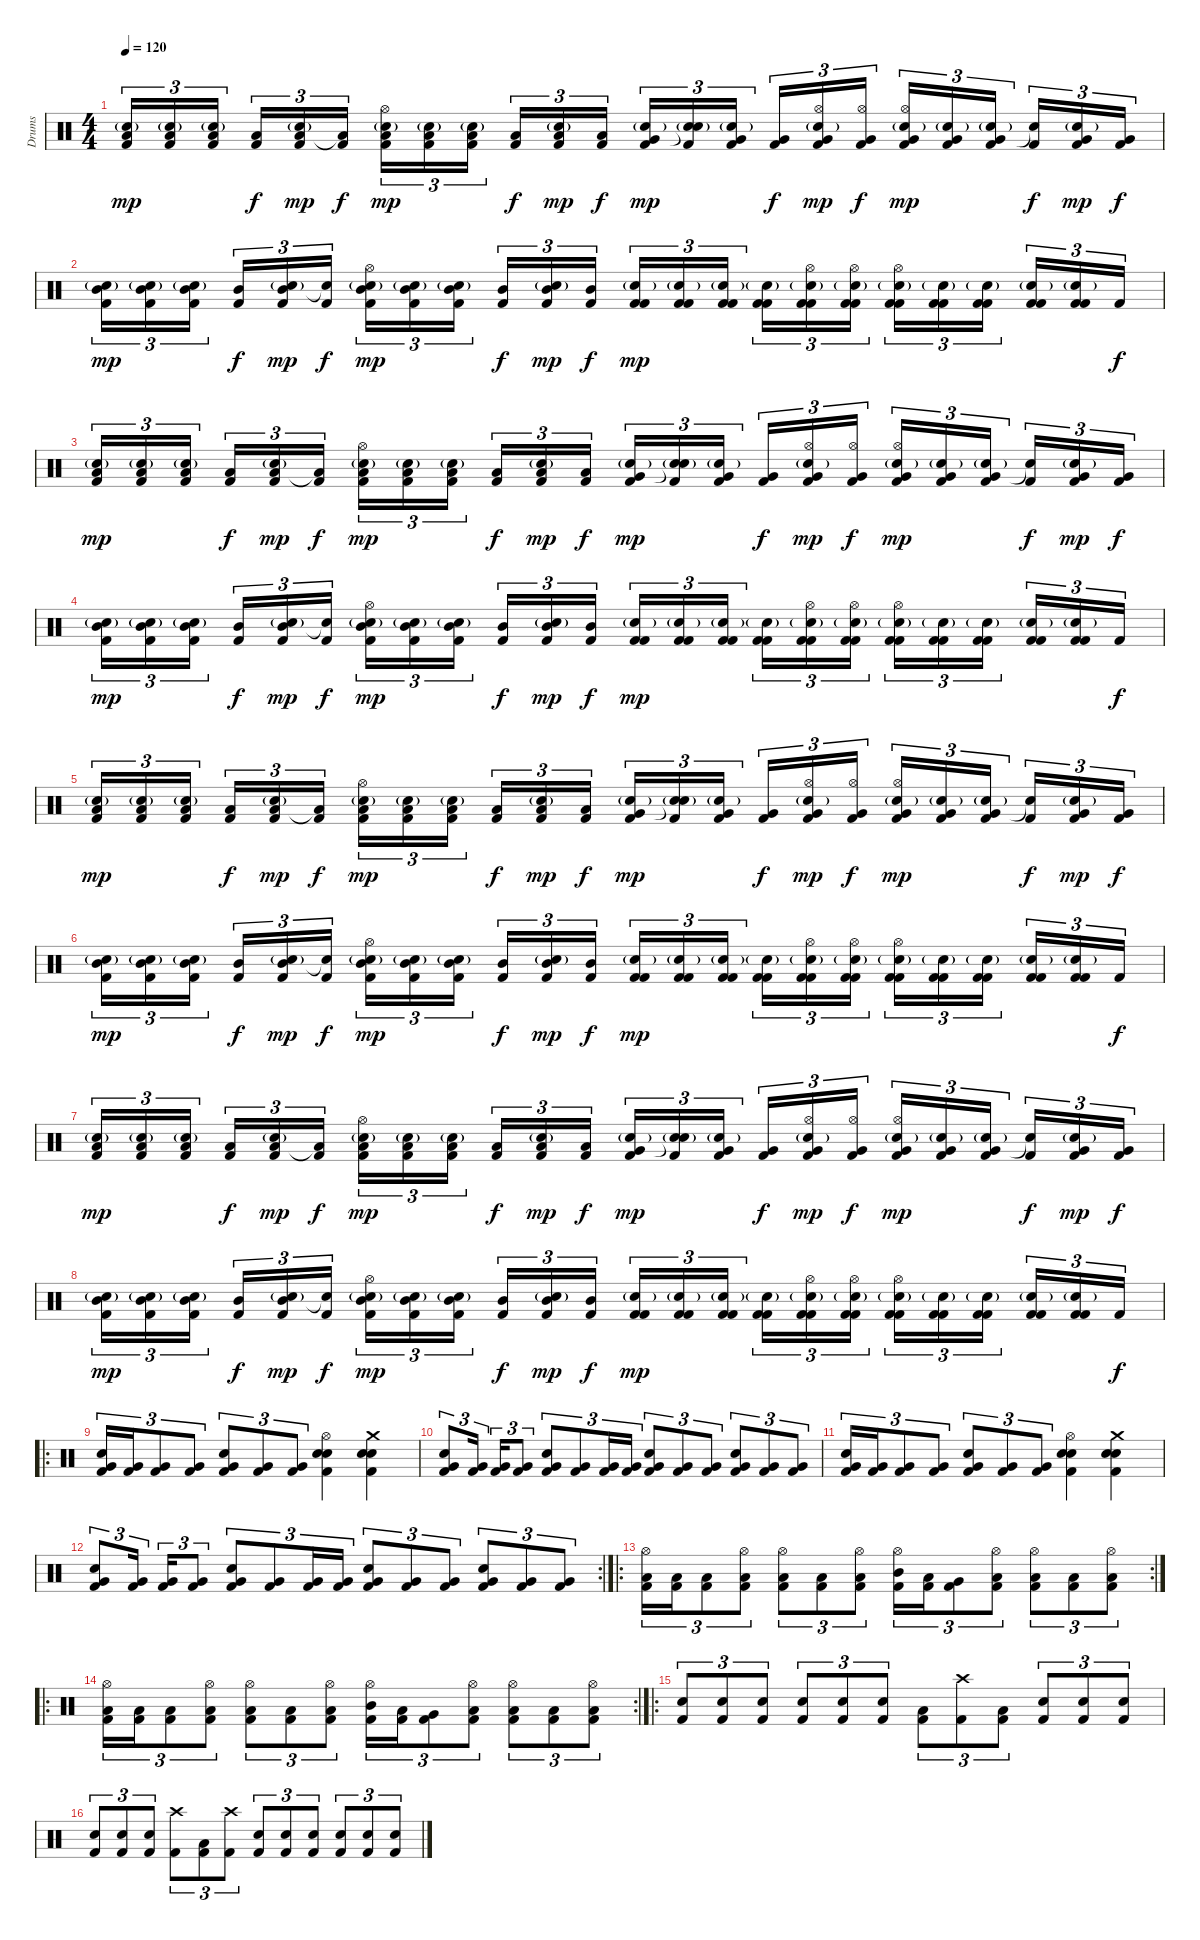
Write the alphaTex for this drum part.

\track ("Drums" "Drums") {instrument percussion}
\staff {score}
\articulation defaults
\ts (4 4)
\tempo 120
\clef neutral
\ks c
("Low Tom (hit)" "Snare (hit) 2"{g} "Kick (hit) 2").16{tu (3 2) dy mp} ("Low Tom (hit)" "Snare (hit) 2"{g} "Kick (hit) 2").16{tu (3 2)} ("Low Tom (hit)" "Snare (hit) 2"{g} "Kick (hit) 2").16{tu (3 2)} ("Low Tom (hit)" "Kick (hit) 2").16{tu (3 2) dy f} ("Low Tom (hit)" "Snare (hit) 2"{g} "Kick (hit) 2").16{tu (3 2) dy mp} ("Low Tom (hit)"{t} "Kick (hit) 2").16{tu (3 2) dy f} ("Low Tom (hit)" "Hi-Hat (open)" "Snare (hit) 2"{g} "Kick (hit) 2").16{tu (3 2) dy mp} ("Low Tom (hit)" "Snare (hit) 2"{g} "Kick (hit) 2").16{tu (3 2)} ("Low Tom (hit)" "Snare (hit) 2"{g} "Kick (hit) 2").16{tu (3 2)} ("Low Tom (hit)" "Kick (hit) 2").16{tu (3 2) dy f} ("Low Tom (hit)" "Snare (hit) 2"{g} "Kick (hit) 2").16{tu (3 2) dy mp} ("Low Tom (hit)" "Kick (hit) 2").16{tu (3 2) dy f} ("Very Low Tom (hit)" "Snare (hit) 2"{g} "Kick (hit) 2").16{tu (3 2) dy mp} ("Snare (hit) 2"{t} "Snare (hit) 2"{g} "Kick (hit) 2").16{tu (3 2)} ("Very Low Tom (hit)" "Snare (hit) 2"{g} "Kick (hit) 2").16{tu (3 2)} ("Very Low Tom (hit)" "Kick (hit) 2").16{tu (3 2) dy f} ("Very Low Tom (hit)" "Hi-Hat (open)" "Snare (hit) 2"{g} "Kick (hit) 2").16{tu (3 2) dy mp} ("Very Low Tom (hit)" "Hi-Hat (open)" "Kick (hit) 2").16{tu (3 2) dy f} ("Very Low Tom (hit)" "Hi-Hat (open)" "Snare (hit) 2"{g} "Kick (hit) 2").16{tu (3 2) dy mp} ("Very Low Tom (hit)" "Snare (hit) 2"{g} "Kick (hit) 2").16{tu (3 2)} ("Very Low Tom (hit)" "Snare (hit) 2"{g} "Kick (hit) 2").16{tu (3 2)} ("Snare (hit)"{t} "Kick (hit) 2").16{tu (3 2) dy f} ("Very Low Tom (hit)" "Snare (hit) 2"{g} "Kick (hit) 2").16{tu (3 2) dy mp} ("Very Low Tom (hit)" "Kick (hit) 2").16{tu (3 2) dy f} |
("Mid Tom (hit)" "Snare (hit) 2"{g} "Kick (hit) 2").16{tu (3 2) dy mp} ("Mid Tom (hit)" "Snare (hit) 2"{g} "Kick (hit) 2").16{tu (3 2)} ("Mid Tom (hit)" "Snare (hit) 2"{g} "Kick (hit) 2").16{tu (3 2)} ("Mid Tom (hit)" "Kick (hit) 2").16{tu (3 2) dy f} ("Mid Tom (hit)" "Snare (hit) 2"{g} "Kick (hit) 2").16{tu (3 2) dy mp} ("Snare (hit) 2"{t} "Kick (hit) 2").16{tu (3 2) dy f} ("Mid Tom (hit)" "Hi-Hat (open)" "Snare (hit) 2"{g} "Kick (hit) 2").16{tu (3 2) dy mp} ("Mid Tom (hit)" "Snare (hit) 2"{g} "Kick (hit) 2").16{tu (3 2)} ("Mid Tom (hit)" "Snare (hit) 2"{g} "Kick (hit) 2").16{tu (3 2)} ("Mid Tom (hit)" "Kick (hit) 2").16{tu (3 2) dy f} ("Mid Tom (hit)" "Snare (hit) 2"{g} "Kick (hit) 2").16{tu (3 2) dy mp} ("Mid Tom (hit)" "Kick (hit) 2").16{tu (3 2) dy f} ("Kick (hit) 2" "Snare (hit) 2"{g} "Kick (hit) 2").16{tu (3 2) dy mp} ("Kick (hit) 2" "Snare (hit) 2"{g} "Kick (hit) 2").16{tu (3 2)} ("Kick (hit) 2" "Snare (hit) 2"{g} "Kick (hit) 2").16{tu (3 2)} ("Kick (hit) 2" "Snare (hit) 2"{g} "Kick (hit) 2").16{tu (3 2)} ("Kick (hit) 2" "Snare (hit) 2"{g} "Hi-Hat (open)" "Kick (hit) 2").16{tu (3 2)} ("Kick (hit) 2" "Snare (hit) 2"{g} "Hi-Hat (open)" "Kick (hit) 2").16{tu (3 2)} ("Kick (hit) 2" "Snare (hit) 2"{g} "Hi-Hat (open)" "Kick (hit) 2").16{tu (3 2)} ("Kick (hit) 2" "Snare (hit) 2"{g} "Kick (hit) 2").16{tu (3 2)} ("Kick (hit) 2" "Snare (hit) 2"{g} "Kick (hit) 2").16{tu (3 2)} ("Kick (hit) 2" "Snare (hit) 2"{g} "Kick (hit) 2").16{tu (3 2)} ("Kick (hit) 2" "Snare (hit) 2"{g} "Kick (hit) 2").16{tu (3 2)} "Kick (hit) 2".16{tu (3 2) dy f} |
("Low Tom (hit)" "Snare (hit) 2"{g} "Kick (hit) 2").16{tu (3 2) dy mp} ("Low Tom (hit)" "Snare (hit) 2"{g} "Kick (hit) 2").16{tu (3 2)} ("Low Tom (hit)" "Snare (hit) 2"{g} "Kick (hit) 2").16{tu (3 2)} ("Low Tom (hit)" "Kick (hit) 2").16{tu (3 2) dy f} ("Low Tom (hit)" "Snare (hit) 2"{g} "Kick (hit) 2").16{tu (3 2) dy mp} ("Low Tom (hit)"{t} "Kick (hit) 2").16{tu (3 2) dy f} ("Low Tom (hit)" "Hi-Hat (open)" "Snare (hit) 2"{g} "Kick (hit) 2").16{tu (3 2) dy mp} ("Low Tom (hit)" "Snare (hit) 2"{g} "Kick (hit) 2").16{tu (3 2)} ("Low Tom (hit)" "Snare (hit) 2"{g} "Kick (hit) 2").16{tu (3 2)} ("Low Tom (hit)" "Kick (hit) 2").16{tu (3 2) dy f} ("Low Tom (hit)" "Snare (hit) 2"{g} "Kick (hit) 2").16{tu (3 2) dy mp} ("Low Tom (hit)" "Kick (hit) 2").16{tu (3 2) dy f} ("Very Low Tom (hit)" "Snare (hit) 2"{g} "Kick (hit) 2").16{tu (3 2) dy mp} ("Snare (hit) 2"{t} "Snare (hit) 2"{g} "Kick (hit) 2").16{tu (3 2)} ("Very Low Tom (hit)" "Snare (hit) 2"{g} "Kick (hit) 2").16{tu (3 2)} ("Very Low Tom (hit)" "Kick (hit) 2").16{tu (3 2) dy f} ("Very Low Tom (hit)" "Hi-Hat (open)" "Snare (hit) 2"{g} "Kick (hit) 2").16{tu (3 2) dy mp} ("Very Low Tom (hit)" "Hi-Hat (open)" "Kick (hit) 2").16{tu (3 2) dy f} ("Very Low Tom (hit)" "Hi-Hat (open)" "Snare (hit) 2"{g} "Kick (hit) 2").16{tu (3 2) dy mp} ("Very Low Tom (hit)" "Snare (hit) 2"{g} "Kick (hit) 2").16{tu (3 2)} ("Very Low Tom (hit)" "Snare (hit) 2"{g} "Kick (hit) 2").16{tu (3 2)} ("Snare (hit)"{t} "Kick (hit) 2").16{tu (3 2) dy f} ("Very Low Tom (hit)" "Snare (hit) 2"{g} "Kick (hit) 2").16{tu (3 2) dy mp} ("Very Low Tom (hit)" "Kick (hit) 2").16{tu (3 2) dy f} |
("Mid Tom (hit)" "Snare (hit) 2"{g} "Kick (hit) 2").16{tu (3 2) dy mp} ("Mid Tom (hit)" "Snare (hit) 2"{g} "Kick (hit) 2").16{tu (3 2)} ("Mid Tom (hit)" "Snare (hit) 2"{g} "Kick (hit) 2").16{tu (3 2)} ("Mid Tom (hit)" "Kick (hit) 2").16{tu (3 2) dy f} ("Mid Tom (hit)" "Snare (hit) 2"{g} "Kick (hit) 2").16{tu (3 2) dy mp} ("Snare (hit) 2"{t} "Kick (hit) 2").16{tu (3 2) dy f} ("Mid Tom (hit)" "Hi-Hat (open)" "Snare (hit) 2"{g} "Kick (hit) 2").16{tu (3 2) dy mp} ("Mid Tom (hit)" "Snare (hit) 2"{g} "Kick (hit) 2").16{tu (3 2)} ("Mid Tom (hit)" "Snare (hit) 2"{g} "Kick (hit) 2").16{tu (3 2)} ("Mid Tom (hit)" "Kick (hit) 2").16{tu (3 2) dy f} ("Mid Tom (hit)" "Snare (hit) 2"{g} "Kick (hit) 2").16{tu (3 2) dy mp} ("Mid Tom (hit)" "Kick (hit) 2").16{tu (3 2) dy f} ("Kick (hit) 2" "Snare (hit) 2"{g} "Kick (hit) 2").16{tu (3 2) dy mp} ("Kick (hit) 2" "Snare (hit) 2"{g} "Kick (hit) 2").16{tu (3 2)} ("Kick (hit) 2" "Snare (hit) 2"{g} "Kick (hit) 2").16{tu (3 2)} ("Kick (hit) 2" "Snare (hit) 2"{g} "Kick (hit) 2").16{tu (3 2)} ("Kick (hit) 2" "Snare (hit) 2"{g} "Hi-Hat (open)" "Kick (hit) 2").16{tu (3 2)} ("Kick (hit) 2" "Snare (hit) 2"{g} "Hi-Hat (open)" "Kick (hit) 2").16{tu (3 2)} ("Kick (hit) 2" "Snare (hit) 2"{g} "Hi-Hat (open)" "Kick (hit) 2").16{tu (3 2)} ("Kick (hit) 2" "Snare (hit) 2"{g} "Kick (hit) 2").16{tu (3 2)} ("Kick (hit) 2" "Snare (hit) 2"{g} "Kick (hit) 2").16{tu (3 2)} ("Kick (hit) 2" "Snare (hit) 2"{g} "Kick (hit) 2").16{tu (3 2)} ("Kick (hit) 2" "Snare (hit) 2"{g} "Kick (hit) 2").16{tu (3 2)} "Kick (hit) 2".16{tu (3 2) dy f} |
("Low Tom (hit)" "Snare (hit) 2"{g} "Kick (hit) 2").16{tu (3 2) dy mp} ("Low Tom (hit)" "Snare (hit) 2"{g} "Kick (hit) 2").16{tu (3 2)} ("Low Tom (hit)" "Snare (hit) 2"{g} "Kick (hit) 2").16{tu (3 2)} ("Low Tom (hit)" "Kick (hit) 2").16{tu (3 2) dy f} ("Low Tom (hit)" "Snare (hit) 2"{g} "Kick (hit) 2").16{tu (3 2) dy mp} ("Low Tom (hit)"{t} "Kick (hit) 2").16{tu (3 2) dy f} ("Low Tom (hit)" "Hi-Hat (open)" "Snare (hit) 2"{g} "Kick (hit) 2").16{tu (3 2) dy mp} ("Low Tom (hit)" "Snare (hit) 2"{g} "Kick (hit) 2").16{tu (3 2)} ("Low Tom (hit)" "Snare (hit) 2"{g} "Kick (hit) 2").16{tu (3 2)} ("Low Tom (hit)" "Kick (hit) 2").16{tu (3 2) dy f} ("Low Tom (hit)" "Snare (hit) 2"{g} "Kick (hit) 2").16{tu (3 2) dy mp} ("Low Tom (hit)" "Kick (hit) 2").16{tu (3 2) dy f} ("Very Low Tom (hit)" "Snare (hit) 2"{g} "Kick (hit) 2").16{tu (3 2) dy mp} ("Snare (hit) 2"{t} "Snare (hit) 2"{g} "Kick (hit) 2").16{tu (3 2)} ("Very Low Tom (hit)" "Snare (hit) 2"{g} "Kick (hit) 2").16{tu (3 2)} ("Very Low Tom (hit)" "Kick (hit) 2").16{tu (3 2) dy f} ("Very Low Tom (hit)" "Hi-Hat (open)" "Snare (hit) 2"{g} "Kick (hit) 2").16{tu (3 2) dy mp} ("Very Low Tom (hit)" "Hi-Hat (open)" "Kick (hit) 2").16{tu (3 2) dy f} ("Very Low Tom (hit)" "Hi-Hat (open)" "Snare (hit) 2"{g} "Kick (hit) 2").16{tu (3 2) dy mp} ("Very Low Tom (hit)" "Snare (hit) 2"{g} "Kick (hit) 2").16{tu (3 2)} ("Very Low Tom (hit)" "Snare (hit) 2"{g} "Kick (hit) 2").16{tu (3 2)} ("Snare (hit)"{t} "Kick (hit) 2").16{tu (3 2) dy f} ("Very Low Tom (hit)" "Snare (hit) 2"{g} "Kick (hit) 2").16{tu (3 2) dy mp} ("Very Low Tom (hit)" "Kick (hit) 2").16{tu (3 2) dy f} |
("Mid Tom (hit)" "Snare (hit) 2"{g} "Kick (hit) 2").16{tu (3 2) dy mp} ("Mid Tom (hit)" "Snare (hit) 2"{g} "Kick (hit) 2").16{tu (3 2)} ("Mid Tom (hit)" "Snare (hit) 2"{g} "Kick (hit) 2").16{tu (3 2)} ("Mid Tom (hit)" "Kick (hit) 2").16{tu (3 2) dy f} ("Mid Tom (hit)" "Snare (hit) 2"{g} "Kick (hit) 2").16{tu (3 2) dy mp} ("Snare (hit) 2"{t} "Kick (hit) 2").16{tu (3 2) dy f} ("Mid Tom (hit)" "Hi-Hat (open)" "Snare (hit) 2"{g} "Kick (hit) 2").16{tu (3 2) dy mp} ("Mid Tom (hit)" "Snare (hit) 2"{g} "Kick (hit) 2").16{tu (3 2)} ("Mid Tom (hit)" "Snare (hit) 2"{g} "Kick (hit) 2").16{tu (3 2)} ("Mid Tom (hit)" "Kick (hit) 2").16{tu (3 2) dy f} ("Mid Tom (hit)" "Snare (hit) 2"{g} "Kick (hit) 2").16{tu (3 2) dy mp} ("Mid Tom (hit)" "Kick (hit) 2").16{tu (3 2) dy f} ("Kick (hit) 2" "Snare (hit) 2"{g} "Kick (hit) 2").16{tu (3 2) dy mp} ("Kick (hit) 2" "Snare (hit) 2"{g} "Kick (hit) 2").16{tu (3 2)} ("Kick (hit) 2" "Snare (hit) 2"{g} "Kick (hit) 2").16{tu (3 2)} ("Kick (hit) 2" "Snare (hit) 2"{g} "Kick (hit) 2").16{tu (3 2)} ("Kick (hit) 2" "Snare (hit) 2"{g} "Hi-Hat (open)" "Kick (hit) 2").16{tu (3 2)} ("Kick (hit) 2" "Snare (hit) 2"{g} "Hi-Hat (open)" "Kick (hit) 2").16{tu (3 2)} ("Kick (hit) 2" "Snare (hit) 2"{g} "Hi-Hat (open)" "Kick (hit) 2").16{tu (3 2)} ("Kick (hit) 2" "Snare (hit) 2"{g} "Kick (hit) 2").16{tu (3 2)} ("Kick (hit) 2" "Snare (hit) 2"{g} "Kick (hit) 2").16{tu (3 2)} ("Kick (hit) 2" "Snare (hit) 2"{g} "Kick (hit) 2").16{tu (3 2)} ("Kick (hit) 2" "Snare (hit) 2"{g} "Kick (hit) 2").16{tu (3 2)} "Kick (hit) 2".16{tu (3 2) dy f} |
("Low Tom (hit)" "Snare (hit) 2"{g} "Kick (hit) 2").16{tu (3 2) dy mp} ("Low Tom (hit)" "Snare (hit) 2"{g} "Kick (hit) 2").16{tu (3 2)} ("Low Tom (hit)" "Snare (hit) 2"{g} "Kick (hit) 2").16{tu (3 2)} ("Low Tom (hit)" "Kick (hit) 2").16{tu (3 2) dy f} ("Low Tom (hit)" "Snare (hit) 2"{g} "Kick (hit) 2").16{tu (3 2) dy mp} ("Low Tom (hit)"{t} "Kick (hit) 2").16{tu (3 2) dy f} ("Low Tom (hit)" "Hi-Hat (open)" "Snare (hit) 2"{g} "Kick (hit) 2").16{tu (3 2) dy mp} ("Low Tom (hit)" "Snare (hit) 2"{g} "Kick (hit) 2").16{tu (3 2)} ("Low Tom (hit)" "Snare (hit) 2"{g} "Kick (hit) 2").16{tu (3 2)} ("Low Tom (hit)" "Kick (hit) 2").16{tu (3 2) dy f} ("Low Tom (hit)" "Snare (hit) 2"{g} "Kick (hit) 2").16{tu (3 2) dy mp} ("Low Tom (hit)" "Kick (hit) 2").16{tu (3 2) dy f} ("Very Low Tom (hit)" "Snare (hit) 2"{g} "Kick (hit) 2").16{tu (3 2) dy mp} ("Snare (hit) 2"{t} "Snare (hit) 2"{g} "Kick (hit) 2").16{tu (3 2)} ("Very Low Tom (hit)" "Snare (hit) 2"{g} "Kick (hit) 2").16{tu (3 2)} ("Very Low Tom (hit)" "Kick (hit) 2").16{tu (3 2) dy f} ("Very Low Tom (hit)" "Hi-Hat (open)" "Snare (hit) 2"{g} "Kick (hit) 2").16{tu (3 2) dy mp} ("Very Low Tom (hit)" "Hi-Hat (open)" "Kick (hit) 2").16{tu (3 2) dy f} ("Very Low Tom (hit)" "Hi-Hat (open)" "Snare (hit) 2"{g} "Kick (hit) 2").16{tu (3 2) dy mp} ("Very Low Tom (hit)" "Snare (hit) 2"{g} "Kick (hit) 2").16{tu (3 2)} ("Very Low Tom (hit)" "Snare (hit) 2"{g} "Kick (hit) 2").16{tu (3 2)} ("Snare (hit)"{t} "Kick (hit) 2").16{tu (3 2) dy f} ("Very Low Tom (hit)" "Snare (hit) 2"{g} "Kick (hit) 2").16{tu (3 2) dy mp} ("Very Low Tom (hit)" "Kick (hit) 2").16{tu (3 2) dy f} |
("Mid Tom (hit)" "Snare (hit) 2"{g} "Kick (hit) 2").16{tu (3 2) dy mp} ("Mid Tom (hit)" "Snare (hit) 2"{g} "Kick (hit) 2").16{tu (3 2)} ("Mid Tom (hit)" "Snare (hit) 2"{g} "Kick (hit) 2").16{tu (3 2)} ("Mid Tom (hit)" "Kick (hit) 2").16{tu (3 2) dy f} ("Mid Tom (hit)" "Snare (hit) 2"{g} "Kick (hit) 2").16{tu (3 2) dy mp} ("Snare (hit) 2"{t} "Kick (hit) 2").16{tu (3 2) dy f} ("Mid Tom (hit)" "Hi-Hat (open)" "Snare (hit) 2"{g} "Kick (hit) 2").16{tu (3 2) dy mp} ("Mid Tom (hit)" "Snare (hit) 2"{g} "Kick (hit) 2").16{tu (3 2)} ("Mid Tom (hit)" "Snare (hit) 2"{g} "Kick (hit) 2").16{tu (3 2)} ("Mid Tom (hit)" "Kick (hit) 2").16{tu (3 2) dy f} ("Mid Tom (hit)" "Snare (hit) 2"{g} "Kick (hit) 2").16{tu (3 2) dy mp} ("Mid Tom (hit)" "Kick (hit) 2").16{tu (3 2) dy f} ("Kick (hit) 2" "Snare (hit) 2"{g} "Kick (hit) 2").16{tu (3 2) dy mp} ("Kick (hit) 2" "Snare (hit) 2"{g} "Kick (hit) 2").16{tu (3 2)} ("Kick (hit) 2" "Snare (hit) 2"{g} "Kick (hit) 2").16{tu (3 2)} ("Kick (hit) 2" "Snare (hit) 2"{g} "Kick (hit) 2").16{tu (3 2)} ("Kick (hit) 2" "Snare (hit) 2"{g} "Hi-Hat (open)" "Kick (hit) 2").16{tu (3 2)} ("Kick (hit) 2" "Snare (hit) 2"{g} "Hi-Hat (open)" "Kick (hit) 2").16{tu (3 2)} ("Kick (hit) 2" "Snare (hit) 2"{g} "Hi-Hat (open)" "Kick (hit) 2").16{tu (3 2)} ("Kick (hit) 2" "Snare (hit) 2"{g} "Kick (hit) 2").16{tu (3 2)} ("Kick (hit) 2" "Snare (hit) 2"{g} "Kick (hit) 2").16{tu (3 2)} ("Kick (hit) 2" "Snare (hit) 2"{g} "Kick (hit) 2").16{tu (3 2)} ("Kick (hit) 2" "Snare (hit) 2"{g} "Kick (hit) 2").16{tu (3 2)} "Kick (hit) 2".16{tu (3 2) dy f} |
\ro
("Very Low Tom (hit)" "Snare (hit) 2" "Kick (hit) 2").16{tu (3 2)} ("Very Low Tom (hit)" "Kick (hit) 2").16{tu (3 2)} ("Very Low Tom (hit)" "Kick (hit) 2").8{tu (3 2)} ("Very Low Tom (hit)" "Kick (hit) 2").8{tu (3 2)} ("Very Low Tom (hit)" "Snare (hit) 2" "Kick (hit) 2").8{tu (3 2)} ("Very Low Tom (hit)" "Kick (hit) 2").8{tu (3 2)} ("Very Low Tom (hit)" "Kick (hit) 2").8{tu (3 2)} ("Hi-Hat (open)" "Snare (hit) 2" "Electric Snare (hit)" "Kick (hit) 2").4 ("Crash medium (hit)" "Snare (hit) 2" "Electric Snare (hit)" "Kick (hit) 2").4 |
("Very Low Tom (hit)" "Snare (hit) 2" "Kick (hit) 2").8{tu (3 2)} ("Very Low Tom (hit)" "Kick (hit) 2").16{tu (3 2)} ("Very Low Tom (hit)" "Kick (hit) 2").16{tu (3 2)} ("Very Low Tom (hit)" "Kick (hit) 2").8{tu (3 2)} ("Very Low Tom (hit)" "Snare (hit) 2" "Kick (hit) 2").8{tu (3 2)} ("Very Low Tom (hit)" "Kick (hit) 2").8{tu (3 2)} ("Very Low Tom (hit)" "Kick (hit) 2").16{tu (3 2)} ("Very Low Tom (hit)" "Kick (hit) 2").16{tu (3 2)} ("Very Low Tom (hit)" "Snare (hit) 2" "Kick (hit) 2").8{tu (3 2)} ("Very Low Tom (hit)" "Kick (hit) 2").8{tu (3 2)} ("Very Low Tom (hit)" "Kick (hit) 2").8{tu (3 2)} ("Very Low Tom (hit)" "Snare (hit) 2" "Kick (hit) 2").8{tu (3 2)} ("Very Low Tom (hit)" "Kick (hit) 2").8{tu (3 2)} ("Very Low Tom (hit)" "Kick (hit) 2").8{tu (3 2)} |
("Very Low Tom (hit)" "Snare (hit) 2" "Kick (hit) 2").16{tu (3 2)} ("Very Low Tom (hit)" "Kick (hit) 2").16{tu (3 2)} ("Very Low Tom (hit)" "Kick (hit) 2").8{tu (3 2)} ("Very Low Tom (hit)" "Kick (hit) 2").8{tu (3 2)} ("Very Low Tom (hit)" "Snare (hit) 2" "Kick (hit) 2").8{tu (3 2)} ("Very Low Tom (hit)" "Kick (hit) 2").8{tu (3 2)} ("Very Low Tom (hit)" "Kick (hit) 2").8{tu (3 2)} ("Hi-Hat (open)" "Snare (hit) 2" "Electric Snare (hit)" "Kick (hit) 2").4 ("Crash medium (hit)" "Snare (hit) 2" "Electric Snare (hit)" "Kick (hit) 2").4 |
\rc 2
("Very Low Tom (hit)" "Snare (hit) 2" "Kick (hit) 2").8{tu (3 2)} ("Very Low Tom (hit)" "Kick (hit) 2").16{tu (3 2)} ("Very Low Tom (hit)" "Kick (hit) 2").16{tu (3 2)} ("Very Low Tom (hit)" "Kick (hit) 2").8{tu (3 2)} ("Very Low Tom (hit)" "Snare (hit) 2" "Kick (hit) 2").8{tu (3 2)} ("Very Low Tom (hit)" "Kick (hit) 2").8{tu (3 2)} ("Very Low Tom (hit)" "Kick (hit) 2").16{tu (3 2)} ("Very Low Tom (hit)" "Kick (hit) 2").16{tu (3 2)} ("Very Low Tom (hit)" "Snare (hit) 2" "Kick (hit) 2").8{tu (3 2)} ("Very Low Tom (hit)" "Kick (hit) 2").8{tu (3 2)} ("Very Low Tom (hit)" "Kick (hit) 2").8{tu (3 2)} ("Very Low Tom (hit)" "Snare (hit) 2" "Kick (hit) 2").8{tu (3 2)} ("Very Low Tom (hit)" "Kick (hit) 2").8{tu (3 2)} ("Very Low Tom (hit)" "Kick (hit) 2").8{tu (3 2)} |
\ro
\rc 2
("Low Tom (hit)" "Hi-Hat (open)" "Kick (hit) 2").16{tu (3 2)} ("Low Tom (hit)" "Kick (hit) 2").16{tu (3 2)} ("Low Tom (hit)" "Kick (hit) 2").8{tu (3 2)} ("Low Tom (hit)" "Hi-Hat (open)" "Kick (hit) 2").8{tu (3 2)} ("Low Tom (hit)" "Hi-Hat (open)" "Kick (hit) 2").8{tu (3 2)} ("Low Tom (hit)" "Kick (hit) 2").8{tu (3 2)} ("Low Tom (hit)" "Hi-Hat (open)" "Kick (hit) 2").8{tu (3 2)} ("Mid Tom (hit)" "Hi-Hat (open)" "Kick (hit) 2").16{tu (3 2)} ("Low Tom (hit)" "Kick (hit) 2").16{tu (3 2)} ("Very Low Tom (hit)" "Kick (hit) 2").8{tu (3 2)} ("Low Tom (hit)" "Hi-Hat (open)" "Kick (hit) 2").8{tu (3 2)} ("Low Tom (hit)" "Hi-Hat (open)" "Kick (hit) 2").8{tu (3 2)} ("Low Tom (hit)" "Kick (hit) 2").8{tu (3 2)} ("Low Tom (hit)" "Hi-Hat (open)" "Kick (hit) 2").8{tu (3 2)} |
\ro
\rc 2
("Low Tom (hit)" "Hi-Hat (open)" "Kick (hit) 2").16{tu (3 2)} ("Low Tom (hit)" "Kick (hit) 2").16{tu (3 2)} ("Low Tom (hit)" "Kick (hit) 2").8{tu (3 2)} ("Low Tom (hit)" "Hi-Hat (open)" "Kick (hit) 2").8{tu (3 2)} ("Low Tom (hit)" "Hi-Hat (open)" "Kick (hit) 2").8{tu (3 2)} ("Low Tom (hit)" "Kick (hit) 2").8{tu (3 2)} ("Low Tom (hit)" "Hi-Hat (open)" "Kick (hit) 2").8{tu (3 2)} ("Mid Tom (hit)" "Hi-Hat (open)" "Kick (hit) 2").16{tu (3 2)} ("Low Tom (hit)" "Kick (hit) 2").16{tu (3 2)} ("Very Low Tom (hit)" "Kick (hit) 2").8{tu (3 2)} ("Low Tom (hit)" "Hi-Hat (open)" "Kick (hit) 2").8{tu (3 2)} ("Low Tom (hit)" "Hi-Hat (open)" "Kick (hit) 2").8{tu (3 2)} ("Low Tom (hit)" "Kick (hit) 2").8{tu (3 2)} ("Low Tom (hit)" "Hi-Hat (open)" "Kick (hit) 2").8{tu (3 2)} |
\ro
("Snare (hit) 2" "Kick (hit) 2").8{tu (3 2)} ("Snare (hit) 2" "Kick (hit) 2").8{tu (3 2)} ("Snare (hit) 2" "Kick (hit) 2").8{tu (3 2)} ("Snare (hit) 2" "Kick (hit) 2").8{tu (3 2)} ("Snare (hit) 2" "Kick (hit) 2").8{tu (3 2)} ("Snare (hit) 2" "Kick (hit) 2").8{tu (3 2)} ("Low Tom (hit)" "Kick (hit) 2").8{tu (3 2)} ("Crash high (hit)" "Kick (hit) 2").8{tu (3 2)} ("Low Tom (hit)" "Kick (hit) 2").8{tu (3 2)} ("Snare (hit) 2" "Kick (hit) 2").8{tu (3 2)} ("Snare (hit) 2" "Kick (hit) 2").8{tu (3 2)} ("Snare (hit) 2" "Kick (hit) 2").8{tu (3 2)} |
("Snare (hit) 2" "Kick (hit) 2").8{tu (3 2)} ("Snare (hit) 2" "Kick (hit) 2").8{tu (3 2)} ("Snare (hit) 2" "Kick (hit) 2").8{tu (3 2)} ("Crash high (hit)" "Kick (hit) 2").8{tu (3 2)} ("Low Tom (hit)" "Kick (hit) 2").8{tu (3 2)} ("Crash high (hit)" "Kick (hit) 2").8{tu (3 2)} ("Snare (hit) 2" "Kick (hit) 2").8{tu (3 2)} ("Snare (hit) 2" "Kick (hit) 2").8{tu (3 2)} ("Snare (hit) 2" "Kick (hit) 2").8{tu (3 2)} ("Snare (hit) 2" "Kick (hit) 2").8{tu (3 2)} ("Snare (hit) 2" "Kick (hit) 2").8{tu (3 2)} ("Snare (hit) 2" "Kick (hit) 2").8{tu (3 2)}
